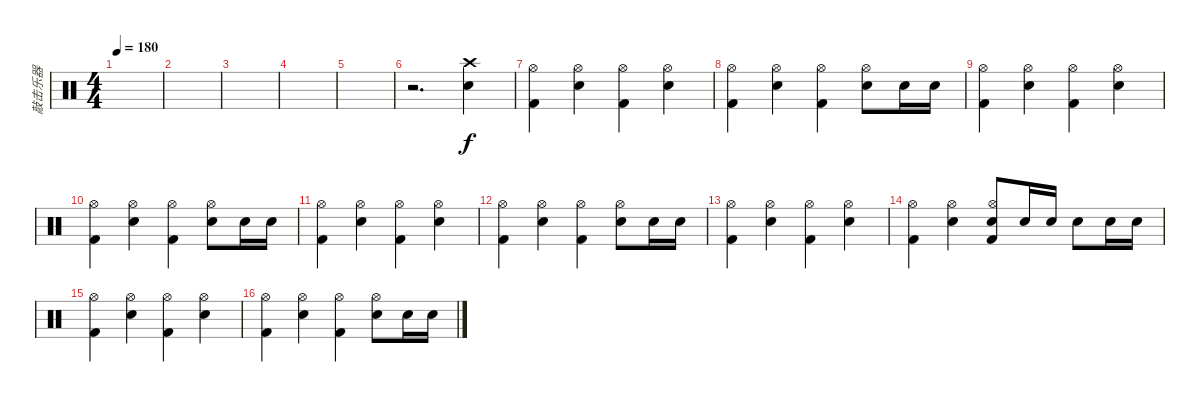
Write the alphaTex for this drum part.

\track ("敲击乐器" "敲击乐器") {instrument percussion}
\staff {score}
\articulation defaults
\ts (4 4)
\tempo 180
\clef neutral
\ks c
|
|
|
|
|
r.2{d} ("Crash high (hit)" "Snare (hit) 2").4 |
("Hi-Hat (open)" "Kick (hit) 2").4 ("Hi-Hat (open)" "Snare (hit) 2").4 ("Hi-Hat (open)" "Kick (hit) 2").4 ("Hi-Hat (open)" "Snare (hit) 2").4 |
("Hi-Hat (open)" "Kick (hit) 2").4 ("Hi-Hat (open)" "Snare (hit) 2").4 ("Hi-Hat (open)" "Kick (hit) 2").4 ("Hi-Hat (open)" "Snare (hit) 2").8 "Snare (hit) 2".16 "Snare (hit) 2".16 |
("Hi-Hat (open)" "Kick (hit) 2").4 ("Hi-Hat (open)" "Snare (hit) 2").4 ("Hi-Hat (open)" "Kick (hit) 2").4 ("Hi-Hat (open)" "Snare (hit) 2").4 |
("Hi-Hat (open)" "Kick (hit) 2").4 ("Hi-Hat (open)" "Snare (hit) 2").4 ("Hi-Hat (open)" "Kick (hit) 2").4 ("Hi-Hat (open)" "Snare (hit) 2").8 "Snare (hit) 2".16 "Snare (hit) 2".16 |
("Hi-Hat (open)" "Kick (hit) 2").4 ("Hi-Hat (open)" "Snare (hit) 2").4 ("Hi-Hat (open)" "Kick (hit) 2").4 ("Hi-Hat (open)" "Snare (hit) 2").4 |
("Hi-Hat (open)" "Kick (hit) 2").4 ("Hi-Hat (open)" "Snare (hit) 2").4 ("Hi-Hat (open)" "Kick (hit) 2").4 ("Hi-Hat (open)" "Snare (hit) 2").8 "Snare (hit) 2".16 "Snare (hit) 2".16 |
("Hi-Hat (open)" "Kick (hit) 2").4 ("Hi-Hat (open)" "Snare (hit) 2").4 ("Hi-Hat (open)" "Kick (hit) 2").4 ("Hi-Hat (open)" "Snare (hit) 2").4 |
("Hi-Hat (open)" "Kick (hit) 2").4 ("Hi-Hat (open)" "Snare (hit) 2").4 ("Hi-Hat (open)" "Snare (hit) 2" "Kick (hit) 2").8 "Snare (hit) 2".16 "Snare (hit) 2".16 "Snare (hit) 2".8 "Snare (hit) 2".16 "Snare (hit) 2".16 |
("Hi-Hat (open)" "Kick (hit) 2").4 ("Hi-Hat (open)" "Snare (hit) 2").4 ("Hi-Hat (open)" "Kick (hit) 2").4 ("Hi-Hat (open)" "Snare (hit) 2").4 |
("Hi-Hat (open)" "Kick (hit) 2").4 ("Hi-Hat (open)" "Snare (hit) 2").4 ("Hi-Hat (open)" "Kick (hit) 2").4 ("Hi-Hat (open)" "Snare (hit) 2").8 "Snare (hit) 2".16 "Snare (hit) 2".16
